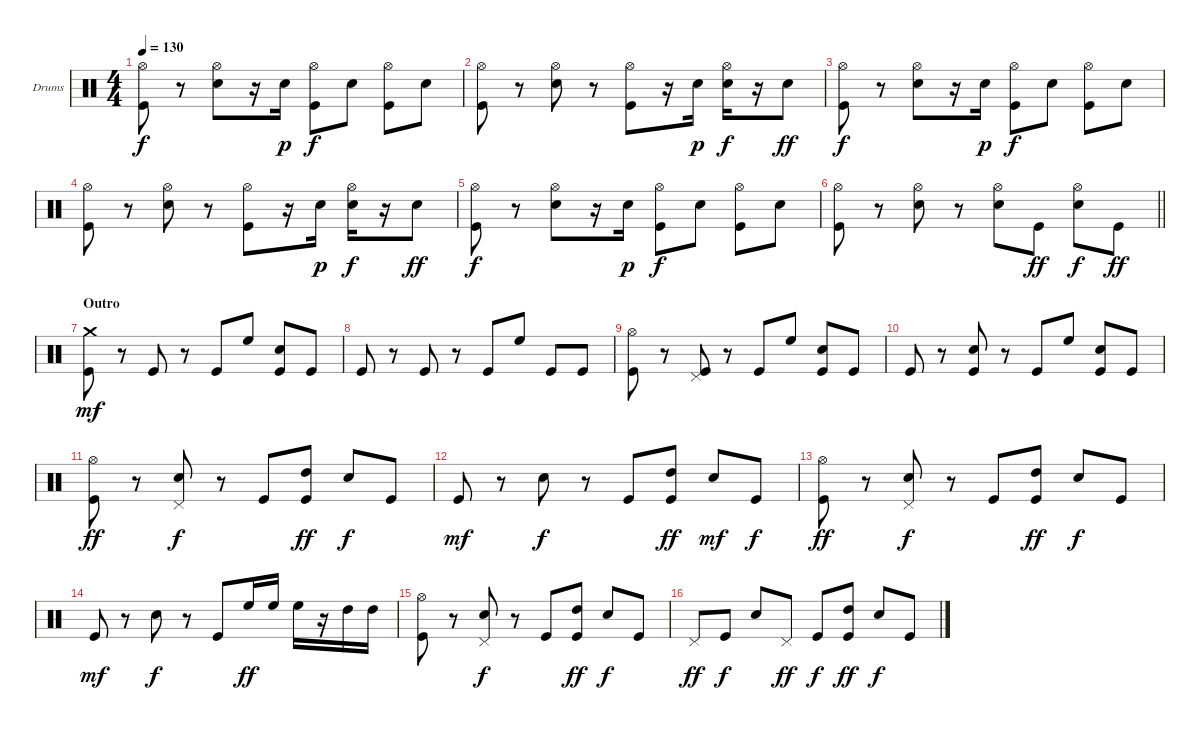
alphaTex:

\bracketExtendMode groupsimilarinstruments
\firstSystemTrackNameOrientation horizontal
\otherSystemsTrackNameOrientation horizontal
\track ("Drumkit" "Drums") {instrument percussion}
\staff {score}
\articulation defaults
\ts (4 4)
\tempo 130
\clef neutral
\ks c
("Hi-Hat (open)" "Kick (hit)").8{dy f} r.8 ("Hi-Hat (open)" "Snare (hit) 2").8 r.16 "Snare (hit) 2".16{dy p} ("Hi-Hat (open)" "Kick (hit)").8{dy f} "Snare (hit) 2".8 ("Hi-Hat (open)" "Kick (hit)").8 "Snare (hit) 2".8 |
("Hi-Hat (open)" "Kick (hit)").8 r.8 ("Hi-Hat (open)" "Snare (hit) 2").8 r.8 ("Hi-Hat (open)" "Kick (hit)").8 r.16 "Snare (hit) 2".16{dy p} ("Hi-Hat (open)" "Snare (hit) 2").16{dy f} r.16 "Snare (hit) 2".8{dy ff} |
("Hi-Hat (open)" "Kick (hit)").8{dy f} r.8 ("Hi-Hat (open)" "Snare (hit) 2").8 r.16 "Snare (hit) 2".16{dy p} ("Hi-Hat (open)" "Kick (hit)").8{dy f} "Snare (hit) 2".8 ("Hi-Hat (open)" "Kick (hit)").8 "Snare (hit) 2".8 |
("Hi-Hat (open)" "Kick (hit)").8 r.8 ("Hi-Hat (open)" "Snare (hit) 2").8 r.8 ("Hi-Hat (open)" "Kick (hit)").8 r.16 "Snare (hit) 2".16{dy p} ("Hi-Hat (open)" "Snare (hit) 2").16{dy f} r.16 "Snare (hit) 2".8{dy ff} |
("Hi-Hat (open)" "Kick (hit)").8{dy f} r.8 ("Hi-Hat (open)" "Snare (hit) 2").8 r.16 "Snare (hit) 2".16{dy p} ("Hi-Hat (open)" "Kick (hit)").8{dy f} "Snare (hit) 2".8 ("Hi-Hat (open)" "Kick (hit)").8 "Snare (hit) 2".8 |
\barLineRight lightlight
("Hi-Hat (open)" "Kick (hit)").8 r.8 ("Hi-Hat (open)" "Snare (hit) 2").8 r.8 ("Hi-Hat (open)" "Snare (hit) 2").8 "Kick (hit)".8{dy ff} ("Hi-Hat (open)" "Snare (hit) 2").8{dy f} "Kick (hit)".8{dy ff} |
\section ("" "Outro")
("Crash medium (hit)" "Kick (hit)").8{dy mf} r.8 "Kick (hit)".8 r.8 "Kick (hit)".8 "High Floor Tom (hit)".8 ("Snare (hit) 2" "Kick (hit)").8 "Kick (hit)".8 |
"Kick (hit)".8 r.8 "Kick (hit)".8 r.8 "Kick (hit)".8 "High Floor Tom (hit)".8 "Kick (hit)".8 "Kick (hit)".8 |
("Hi-Hat (open)" "Kick (hit)").8 r.8 ("Pedal Hi-Hat (hit)" "Kick (hit)").8 r.8 "Kick (hit)".8 "High Floor Tom (hit)".8 ("Snare (hit) 2" "Kick (hit)").8 "Kick (hit)".8 |
"Kick (hit)".8 r.8 ("Snare (hit) 2" "Kick (hit)").8 r.8 "Kick (hit)".8 "High Floor Tom (hit)".8 ("Snare (hit) 2" "Kick (hit)").8 "Kick (hit)".8 |
("Hi-Hat (open)" "Kick (hit)").8{dy ff} r.8 ("Pedal Hi-Hat (hit)" "Snare (hit) 2").8{dy f} r.8 "Kick (hit)".8 ("High Tom (hit)" "Kick (hit)").8{dy ff} "Snare (hit) 2".8{dy f} "Kick (hit)".8 |
"Kick (hit)".8{dy mf} r.8 "Snare (hit) 2".8{dy f} r.8 "Kick (hit)".8 ("High Tom (hit)" "Kick (hit)").8{dy ff} "Snare (hit) 2".8{dy mf} "Kick (hit)".8{dy f} |
("Hi-Hat (open)" "Kick (hit)").8{dy ff} r.8 ("Pedal Hi-Hat (hit)" "Snare (hit) 2").8{dy f} r.8 "Kick (hit)".8 ("High Tom (hit)" "Kick (hit)").8{dy ff} "Snare (hit) 2".8{dy f} "Kick (hit)".8 |
"Kick (hit)".8{dy mf} r.8 "Snare (hit) 2".8{dy f} r.8 "Kick (hit)".8 "High Floor Tom (hit)".16{dy ff} "High Floor Tom (hit)".16 "High Floor Tom (hit)".16 r.16 "High Tom (hit)".16 "High Tom (hit)".16 |
("Hi-Hat (open)" "Kick (hit)").8 r.8 ("Pedal Hi-Hat (hit)" "Snare (hit) 2").8{dy f} r.8 "Kick (hit)".8 ("High Tom (hit)" "Kick (hit)").8{dy ff} "Snare (hit) 2".8{dy f} "Kick (hit)".8 |
"Pedal Hi-Hat (hit)".8{dy ff} "Kick (hit)".8{dy f} "Snare (hit) 2".8 "Pedal Hi-Hat (hit)".8{dy ff} "Kick (hit)".8{dy f} ("High Tom (hit)" "Kick (hit)").8{dy ff} "Snare (hit) 2".8{dy f} "Kick (hit)".8
